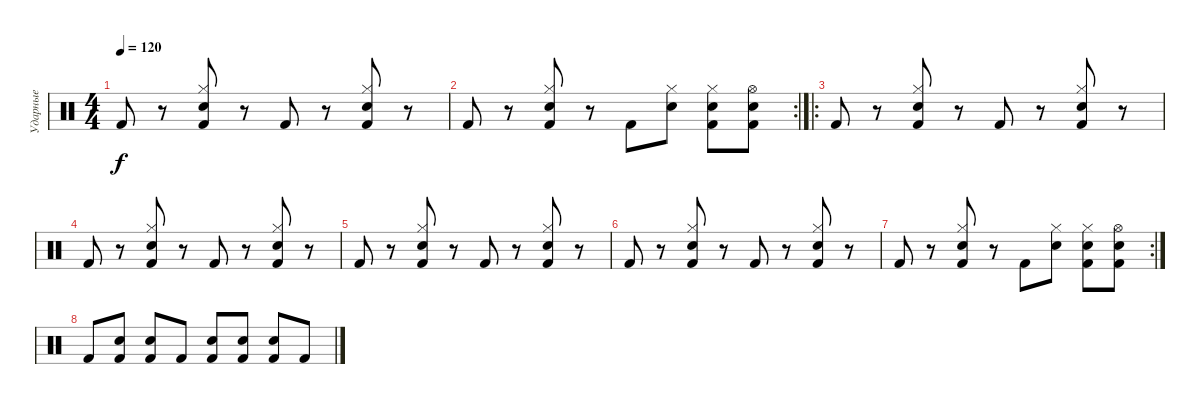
\track ("Ударные" "Ударные") {instrument percussion}
\staff {score}
\articulation defaults
\ts (4 4)
\tempo 120
\clef neutral
\ks c "Kick (hit) 2".8{dy f}
r.8 ("Kick (hit) 2" "Hi-Hat (closed)" "Electric Snare (hit)").8 r.8 "Kick (hit) 2".8 r.8 ("Kick (hit) 2" "Hi-Hat (closed)" "Electric Snare (hit)").8 r.8 |
\rc 2 "Kick (hit) 2".8
r.8 ("Kick (hit) 2" "Hi-Hat (closed)" "Electric Snare (hit)").8 r.8 "Kick (hit) 2".8 ("Hi-Hat (closed)" "Electric Snare (hit)").8 ("Kick (hit) 2" "Hi-Hat (closed)" "Electric Snare (hit)").8 ("Kick (hit) 2" "Hi-Hat (open)" "Electric Snare (hit)").8 |
\ro "Kick (hit) 2".8
r.8 ("Kick (hit) 2" "Hi-Hat (closed)" "Electric Snare (hit)").8 r.8 "Kick (hit) 2".8 r.8 ("Kick (hit) 2" "Hi-Hat (closed)" "Electric Snare (hit)").8 r.8 |
"Kick (hit) 2".8 r.8 ("Kick (hit) 2" "Hi-Hat (closed)" "Electric Snare (hit)").8 r.8 "Kick (hit) 2".8 r.8 ("Kick (hit) 2" "Hi-Hat (closed)" "Electric Snare (hit)").8 r.8 |
"Kick (hit) 2".8 r.8 ("Kick (hit) 2" "Hi-Hat (closed)" "Electric Snare (hit)").8 r.8 "Kick (hit) 2".8 r.8 ("Kick (hit) 2" "Hi-Hat (closed)" "Electric Snare (hit)").8 r.8 |
"Kick (hit) 2".8 r.8 ("Kick (hit) 2" "Hi-Hat (closed)" "Electric Snare (hit)").8 r.8 "Kick (hit) 2".8 r.8 ("Kick (hit) 2" "Hi-Hat (closed)" "Electric Snare (hit)").8 r.8 |
\rc 2 "Kick (hit) 2".8
r.8 ("Kick (hit) 2" "Hi-Hat (closed)" "Electric Snare (hit)").8 r.8 "Kick (hit) 2".8 ("Hi-Hat (closed)" "Electric Snare (hit)").8 ("Kick (hit) 2" "Hi-Hat (closed)" "Electric Snare (hit)").8 ("Kick (hit) 2" "Hi-Hat (open)" "Electric Snare (hit)").8 |
"Kick (hit) 2".8 ("Kick (hit) 2" "Electric Snare (hit)").8 ("Kick (hit) 2" "Electric Snare (hit)").8 "Kick (hit) 2".8 ("Kick (hit) 2" "Electric Snare (hit)").8 ("Kick (hit) 2" "Electric Snare (hit)").8 ("Kick (hit) 2" "Electric Snare (hit)").8 "Kick (hit) 2".8
